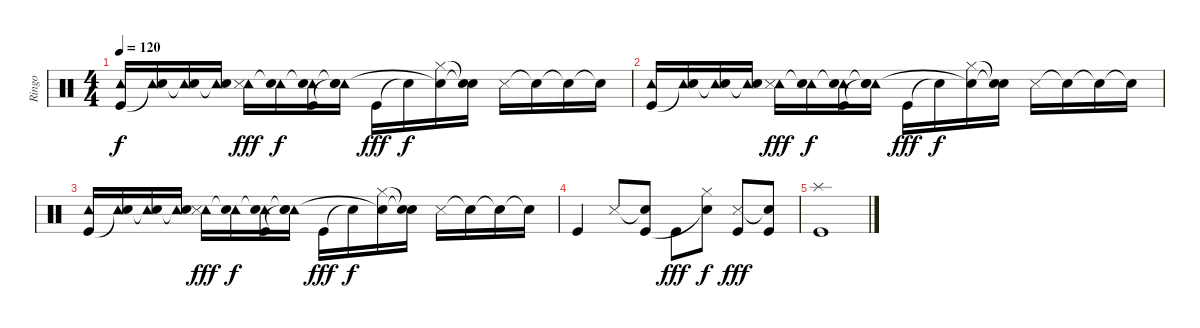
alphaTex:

\track ("Ringo" "Ringo") {instrument percussion}
\staff {score}
\articulation defaults
\ts (4 4)
\tempo 120
\clef neutral
\ks c
("Tambourine (hit)" "Kick (hit)").16{dy f} ("Tambourine (hit)" "Snare (hit)"{t}).16 ("Tambourine (hit)" "Snare (hit)"{t}).16 ("Tambourine (hit)" "Snare (hit)"{t}).16 ("Tambourine (hit)" "Snare (side stick) 3").16{dy fff} ("Tambourine (hit)" "Snare (hit)"{t}).16{dy f} ("Tambourine (hit)" "Snare (hit)"{t} "Kick (hit)").16 ("Tambourine (hit)" "Snare (hit)"{t} "Snare (hit)"{t}).16 "Kick (hit)".16{dy fff} "Snare (hit)"{t}.16{dy f} ("Hi-Hat (closed)" "Snare (hit)"{t}).16 ("Snare (hit)"{t} "Snare (hit)"{t}).16 "Snare (side stick) 3".16 "Snare (hit)"{t}.16 "Snare (hit)"{t}.16 "Snare (hit)"{t}.16 |
("Tambourine (hit)" "Kick (hit)").16 ("Tambourine (hit)" "Snare (hit)"{t}).16 ("Tambourine (hit)" "Snare (hit)"{t}).16 ("Tambourine (hit)" "Snare (hit)"{t}).16 ("Tambourine (hit)" "Snare (side stick) 3").16{dy fff} ("Tambourine (hit)" "Snare (hit)"{t}).16{dy f} ("Tambourine (hit)" "Snare (hit)"{t} "Kick (hit)").16 ("Tambourine (hit)" "Snare (hit)"{t} "Snare (hit)"{t}).16 "Kick (hit)".16{dy fff} "Snare (hit)"{t}.16{dy f} ("Hi-Hat (closed)" "Snare (hit)"{t}).16 ("Snare (hit)"{t} "Snare (hit)"{t}).16 "Snare (side stick) 3".16 "Snare (hit)"{t}.16 "Snare (hit)"{t}.16 "Snare (hit)"{t}.16 |
("Tambourine (hit)" "Kick (hit)").16 ("Tambourine (hit)" "Snare (hit)"{t}).16 ("Tambourine (hit)" "Snare (hit)"{t}).16 ("Tambourine (hit)" "Snare (hit)"{t}).16 ("Tambourine (hit)" "Snare (side stick) 3").16{dy fff} ("Tambourine (hit)" "Snare (hit)"{t}).16{dy f} ("Tambourine (hit)" "Snare (hit)"{t} "Kick (hit)").16 ("Tambourine (hit)" "Snare (hit)"{t} "Snare (hit)"{t}).16 "Kick (hit)".16{dy fff} "Snare (hit)"{t}.16{dy f} ("Hi-Hat (closed)" "Snare (hit)"{t}).16 ("Snare (hit)"{t} "Snare (hit)"{t}).16 "Snare (side stick) 3".16 "Snare (hit)"{t}.16 "Snare (hit)"{t}.16 "Snare (hit)"{t}.16 |
"Kick (hit)".4 "Snare (side stick) 3".8 ("Snare (hit)"{t} "Kick (hit)").8 "Kick (hit)".8{dy fff} ("Hi-Hat (closed)" "Snare (hit)"{t}).8{dy f} ("Snare (side stick) 3" "Kick (hit)").8{dy fff} ("Snare (hit)"{t} "Kick (hit)").8 |
("Splash (hit)" "Kick (hit)").1
